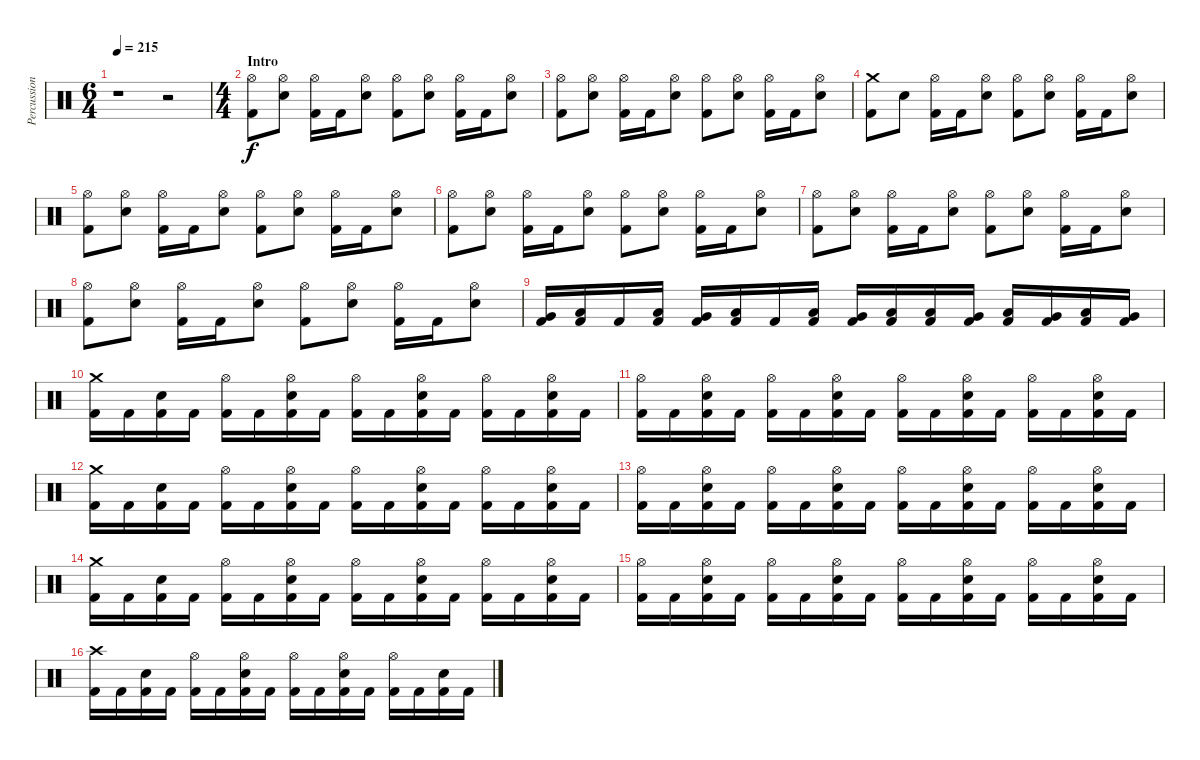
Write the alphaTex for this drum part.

\track ("Percussion" "Percussion") {instrument percussion}
\staff {score}
\articulation defaults
\ts (6 4)
\tempo 215
\clef neutral
\ks c
r.1{dy f} r.2 |
\ts (4 4)
\section ("" "Intro")
("Hi-Hat (open)" "Kick (hit) 2").8 ("Hi-Hat (open)" "Snare (hit) 2").8 ("Hi-Hat (open)" "Kick (hit) 2").16 "Kick (hit) 2".16 ("Hi-Hat (open)" "Snare (hit) 2").8 ("Hi-Hat (open)" "Kick (hit) 2").8 ("Hi-Hat (open)" "Snare (hit) 2").8 ("Hi-Hat (open)" "Kick (hit) 2").16 "Kick (hit) 2".16 ("Hi-Hat (open)" "Snare (hit) 2").8 |
("Hi-Hat (open)" "Kick (hit) 2").8 ("Hi-Hat (open)" "Snare (hit) 2").8 ("Hi-Hat (open)" "Kick (hit) 2").16 "Kick (hit) 2".16 ("Hi-Hat (open)" "Snare (hit) 2").8 ("Hi-Hat (open)" "Kick (hit) 2").8 ("Hi-Hat (open)" "Snare (hit) 2").8 ("Hi-Hat (open)" "Kick (hit) 2").16 "Kick (hit) 2".16 ("Hi-Hat (open)" "Snare (hit) 2").8 |
("Crash medium (hit)" "Kick (hit) 2").8 "Snare (hit) 2".8 ("Hi-Hat (open)" "Kick (hit) 2").16 "Kick (hit) 2".16 ("Hi-Hat (open)" "Snare (hit) 2").8 ("Hi-Hat (open)" "Kick (hit) 2").8 ("Hi-Hat (open)" "Snare (hit) 2").8 ("Hi-Hat (open)" "Kick (hit) 2").16 "Kick (hit) 2".16 ("Hi-Hat (open)" "Snare (hit) 2").8 |
("Hi-Hat (open)" "Kick (hit) 2").8 ("Hi-Hat (open)" "Snare (hit) 2").8 ("Hi-Hat (open)" "Kick (hit) 2").16 "Kick (hit) 2".16 ("Hi-Hat (open)" "Snare (hit) 2").8 ("Hi-Hat (open)" "Kick (hit) 2").8 ("Hi-Hat (open)" "Snare (hit) 2").8 ("Hi-Hat (open)" "Kick (hit) 2").16 "Kick (hit) 2".16 ("Hi-Hat (open)" "Snare (hit) 2").8 |
("Hi-Hat (open)" "Kick (hit) 2").8 ("Hi-Hat (open)" "Snare (hit) 2").8 ("Hi-Hat (open)" "Kick (hit) 2").16 "Kick (hit) 2".16 ("Hi-Hat (open)" "Snare (hit) 2").8 ("Hi-Hat (open)" "Kick (hit) 2").8 ("Hi-Hat (open)" "Snare (hit) 2").8 ("Hi-Hat (open)" "Kick (hit) 2").16 "Kick (hit) 2".16 ("Hi-Hat (open)" "Snare (hit) 2").8 |
("Hi-Hat (open)" "Kick (hit) 2").8 ("Hi-Hat (open)" "Snare (hit) 2").8 ("Hi-Hat (open)" "Kick (hit) 2").16 "Kick (hit) 2".16 ("Hi-Hat (open)" "Snare (hit) 2").8 ("Hi-Hat (open)" "Kick (hit) 2").8 ("Hi-Hat (open)" "Snare (hit) 2").8 ("Hi-Hat (open)" "Kick (hit) 2").16 "Kick (hit) 2".16 ("Hi-Hat (open)" "Snare (hit) 2").8 |
("Hi-Hat (open)" "Kick (hit) 2").8 ("Hi-Hat (open)" "Snare (hit) 2").8 ("Hi-Hat (open)" "Kick (hit) 2").16 "Kick (hit) 2".16 ("Hi-Hat (open)" "Snare (hit) 2").8 ("Hi-Hat (open)" "Kick (hit) 2").8 ("Hi-Hat (open)" "Snare (hit) 2").8 ("Hi-Hat (open)" "Kick (hit) 2").16 "Kick (hit) 2".16 ("Hi-Hat (open)" "Snare (hit) 2").8 |
("Very Low Tom (hit)" "Kick (hit) 2").16 ("Low Floor Tom (hit)" "Kick (hit) 2").16 "Kick (hit) 2".16 ("Low Floor Tom (hit)" "Kick (hit) 2").16 ("Very Low Tom (hit)" "Kick (hit) 2").16 ("Low Floor Tom (hit)" "Kick (hit) 2").16 "Kick (hit) 2".16 ("Low Floor Tom (hit)" "Kick (hit) 2").16 ("Very Low Tom (hit)" "Kick (hit) 2").16 ("Low Floor Tom (hit)" "Kick (hit) 2").16 ("Low Floor Tom (hit)" "Kick (hit) 2").16 ("Very Low Tom (hit)" "Kick (hit) 2").16 ("Low Tom (hit)" "Kick (hit) 2").16 ("Very Low Tom (hit)" "Kick (hit) 2").16 ("Low Floor Tom (hit)" "Kick (hit) 2").16 ("Very Low Tom (hit)" "Kick (hit) 2").16 |
("Crash medium (hit)" "Kick (hit) 2").16 "Kick (hit) 2".16 ("Snare (hit) 2" "Kick (hit) 2").16 "Kick (hit) 2".16 ("Hi-Hat (open)" "Kick (hit) 2").16 "Kick (hit) 2".16 ("Hi-Hat (open)" "Snare (hit) 2" "Kick (hit) 2").16 "Kick (hit) 2".16 ("Hi-Hat (open)" "Kick (hit) 2").16 "Kick (hit) 2".16 ("Hi-Hat (open)" "Snare (hit) 2" "Kick (hit) 2").16 "Kick (hit) 2".16 ("Hi-Hat (open)" "Kick (hit) 2").16 "Kick (hit) 2".16 ("Hi-Hat (open)" "Snare (hit) 2" "Kick (hit) 2").16 "Kick (hit) 2".16 |
("Hi-Hat (open)" "Kick (hit) 2").16 "Kick (hit) 2".16 ("Hi-Hat (open)" "Snare (hit) 2" "Kick (hit) 2").16 "Kick (hit) 2".16 ("Hi-Hat (open)" "Kick (hit) 2").16 "Kick (hit) 2".16 ("Hi-Hat (open)" "Snare (hit) 2" "Kick (hit) 2").16 "Kick (hit) 2".16 ("Hi-Hat (open)" "Kick (hit) 2").16 "Kick (hit) 2".16 ("Hi-Hat (open)" "Snare (hit) 2" "Kick (hit) 2").16 "Kick (hit) 2".16 ("Hi-Hat (open)" "Kick (hit) 2").16 "Kick (hit) 2".16 ("Hi-Hat (open)" "Snare (hit) 2" "Kick (hit) 2").16 "Kick (hit) 2".16 |
("Crash medium (hit)" "Kick (hit) 2").16 "Kick (hit) 2".16 ("Snare (hit) 2" "Kick (hit) 2").16 "Kick (hit) 2".16 ("Hi-Hat (open)" "Kick (hit) 2").16 "Kick (hit) 2".16 ("Hi-Hat (open)" "Snare (hit) 2" "Kick (hit) 2").16 "Kick (hit) 2".16 ("Hi-Hat (open)" "Kick (hit) 2").16 "Kick (hit) 2".16 ("Hi-Hat (open)" "Snare (hit) 2" "Kick (hit) 2").16 "Kick (hit) 2".16 ("Hi-Hat (open)" "Kick (hit) 2").16 "Kick (hit) 2".16 ("Hi-Hat (open)" "Snare (hit) 2" "Kick (hit) 2").16 "Kick (hit) 2".16 |
("Hi-Hat (open)" "Kick (hit) 2").16 "Kick (hit) 2".16 ("Hi-Hat (open)" "Snare (hit) 2" "Kick (hit) 2").16 "Kick (hit) 2".16 ("Hi-Hat (open)" "Kick (hit) 2").16 "Kick (hit) 2".16 ("Hi-Hat (open)" "Snare (hit) 2" "Kick (hit) 2").16 "Kick (hit) 2".16 ("Hi-Hat (open)" "Kick (hit) 2").16 "Kick (hit) 2".16 ("Hi-Hat (open)" "Snare (hit) 2" "Kick (hit) 2").16 "Kick (hit) 2".16 ("Hi-Hat (open)" "Kick (hit) 2").16 "Kick (hit) 2".16 ("Hi-Hat (open)" "Snare (hit) 2" "Kick (hit) 2").16 "Kick (hit) 2".16 |
("Crash medium (hit)" "Kick (hit) 2").16 "Kick (hit) 2".16 ("Snare (hit) 2" "Kick (hit) 2").16 "Kick (hit) 2".16 ("Hi-Hat (open)" "Kick (hit) 2").16 "Kick (hit) 2".16 ("Hi-Hat (open)" "Snare (hit) 2" "Kick (hit) 2").16 "Kick (hit) 2".16 ("Hi-Hat (open)" "Kick (hit) 2").16 "Kick (hit) 2".16 ("Hi-Hat (open)" "Snare (hit) 2" "Kick (hit) 2").16 "Kick (hit) 2".16 ("Hi-Hat (open)" "Kick (hit) 2").16 "Kick (hit) 2".16 ("Hi-Hat (open)" "Snare (hit) 2" "Kick (hit) 2").16 "Kick (hit) 2".16 |
("Hi-Hat (open)" "Kick (hit) 2").16 "Kick (hit) 2".16 ("Hi-Hat (open)" "Snare (hit) 2" "Kick (hit) 2").16 "Kick (hit) 2".16 ("Hi-Hat (open)" "Kick (hit) 2").16 "Kick (hit) 2".16 ("Hi-Hat (open)" "Snare (hit) 2" "Kick (hit) 2").16 "Kick (hit) 2".16 ("Hi-Hat (open)" "Kick (hit) 2").16 "Kick (hit) 2".16 ("Hi-Hat (open)" "Snare (hit) 2" "Kick (hit) 2").16 "Kick (hit) 2".16 ("Hi-Hat (open)" "Kick (hit) 2").16 "Kick (hit) 2".16 ("Hi-Hat (open)" "Snare (hit) 2" "Kick (hit) 2").16 "Kick (hit) 2".16 |
("Crash high (hit)" "Kick (hit) 2").16 "Kick (hit) 2".16 ("Snare (hit) 2" "Kick (hit) 2").16 "Kick (hit) 2".16 ("Hi-Hat (open)" "Kick (hit) 2").16 "Kick (hit) 2".16 ("Hi-Hat (open)" "Snare (hit) 2" "Kick (hit) 2").16 "Kick (hit) 2".16 ("Hi-Hat (open)" "Kick (hit) 2").16 "Kick (hit) 2".16 ("Hi-Hat (open)" "Snare (hit) 2" "Kick (hit) 2").16 "Kick (hit) 2".16 ("Hi-Hat (open)" "Kick (hit) 2").16 "Kick (hit) 2".16 ("Snare (hit) 2" "Kick (hit) 2").16 "Kick (hit) 2".16
